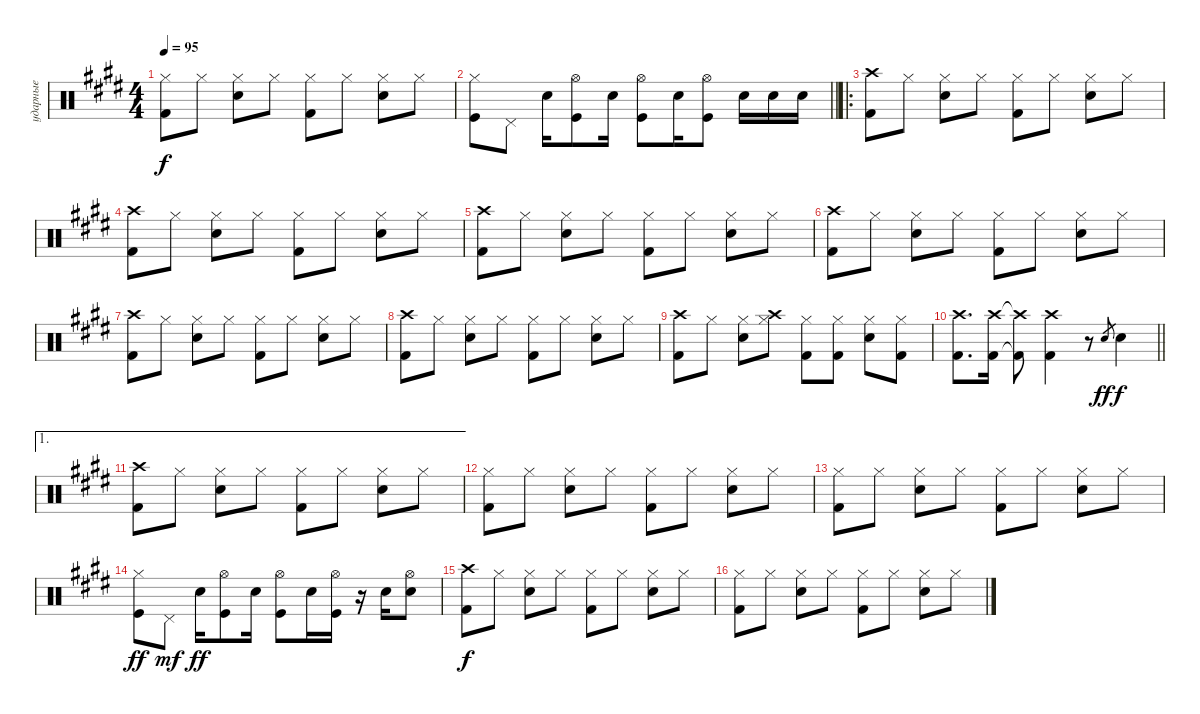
\track ("ударные" "ударные") {instrument percussion}
\staff {score}
\articulation defaults
\ts (4 4)
\tempo 95
\clef neutral
\ks e
("Hi-Hat (closed)" "Kick (hit) 2").8{dy f} "Hi-Hat (closed)".8 ("Hi-Hat (closed)" "Snare (hit) 2").8 "Hi-Hat (closed)".8 ("Hi-Hat (closed)" "Kick (hit) 2").8 "Hi-Hat (closed)".8 ("Hi-Hat (closed)" "Snare (hit) 2").8 "Hi-Hat (closed)".8 |
\barLineRight lightlight
("Hi-Hat (closed)" "Kick (hit)").8 "Pedal Hi-Hat (hit)".8 "Snare (hit) 2".16 ("Hi-Hat (open)" "Kick (hit)").8 "Snare (hit) 2".16 ("Hi-Hat (open)" "Kick (hit)").8 "Snare (hit) 2".16 ("Hi-Hat (open)" "Kick (hit)").8 "Snare (hit) 2".16 "Snare (hit) 2".16 "Snare (hit) 2".16 |
\ro
\section ("" "")
("Crash high (hit)" "Kick (hit) 2").8 "Hi-Hat (closed)".8 ("Hi-Hat (closed)" "Snare (hit) 2").8 "Hi-Hat (closed)".8 ("Hi-Hat (closed)" "Kick (hit) 2").8 "Hi-Hat (closed)".8 ("Hi-Hat (closed)" "Snare (hit) 2").8 "Hi-Hat (closed)".8 |
("Crash high (hit)" "Kick (hit) 2").8 "Hi-Hat (closed)".8 ("Hi-Hat (closed)" "Snare (hit) 2").8 "Hi-Hat (closed)".8 ("Hi-Hat (closed)" "Kick (hit) 2").8 "Hi-Hat (closed)".8 ("Hi-Hat (closed)" "Snare (hit) 2").8 "Hi-Hat (closed)".8 |
("Crash high (hit)" "Kick (hit) 2").8 "Hi-Hat (closed)".8 ("Hi-Hat (closed)" "Snare (hit) 2").8 "Hi-Hat (closed)".8 ("Hi-Hat (closed)" "Kick (hit) 2").8 "Hi-Hat (closed)".8 ("Hi-Hat (closed)" "Snare (hit) 2").8 "Hi-Hat (closed)".8 |
("Crash high (hit)" "Kick (hit) 2").8 "Hi-Hat (closed)".8 ("Hi-Hat (closed)" "Snare (hit) 2").8 "Hi-Hat (closed)".8 ("Hi-Hat (closed)" "Kick (hit) 2").8 "Hi-Hat (closed)".8 ("Hi-Hat (closed)" "Snare (hit) 2").8 "Hi-Hat (closed)".8 |
("Crash high (hit)" "Kick (hit) 2").8 "Hi-Hat (closed)".8 ("Hi-Hat (closed)" "Snare (hit) 2").8 "Hi-Hat (closed)".8 ("Hi-Hat (closed)" "Kick (hit) 2").8 "Hi-Hat (closed)".8 ("Hi-Hat (closed)" "Snare (hit) 2").8 "Hi-Hat (closed)".8 |
("Crash high (hit)" "Kick (hit) 2").8 "Hi-Hat (closed)".8 ("Hi-Hat (closed)" "Snare (hit) 2").8 "Hi-Hat (closed)".8 ("Hi-Hat (closed)" "Kick (hit) 2").8 "Hi-Hat (closed)".8 ("Hi-Hat (closed)" "Snare (hit) 2").8 "Hi-Hat (closed)".8 |
("Crash high (hit)" "Kick (hit) 2").8 "Hi-Hat (closed)".8 ("Hi-Hat (closed)" "Snare (hit) 2").8 ("Crash high (hit)" "Hi-Hat (closed)").8 ("Hi-Hat (closed)" "Kick (hit) 2").8 ("Hi-Hat (closed)" "Kick (hit) 2").8 ("Hi-Hat (closed)" "Snare (hit) 2").8 ("Hi-Hat (closed)" "Kick (hit) 2").8 |
\barLineRight lightlight
("Crash high (hit)" "Kick (hit) 2").8{d} ("Crash high (hit)" "Kick (hit) 2").16 ("Crash high (hit)"{t} "Kick (hit) 2"{t}).8 ("Crash high (hit)" "Kick (hit) 2").4 r.8 "Snare (hit) 2".8{gr dy ff} "Snare (hit) 2".4{dy f} |
\ae 1
\section ("" "")
("Crash high (hit)" "Kick (hit) 2").8 "Hi-Hat (closed)".8 ("Hi-Hat (closed)" "Snare (hit) 2").8 "Hi-Hat (closed)".8 ("Hi-Hat (closed)" "Kick (hit) 2").8 "Hi-Hat (closed)".8 ("Hi-Hat (closed)" "Snare (hit) 2").8 "Hi-Hat (closed)".8 |
("Hi-Hat (closed)" "Kick (hit) 2").8 "Hi-Hat (closed)".8 ("Hi-Hat (closed)" "Snare (hit) 2").8 "Hi-Hat (closed)".8 ("Hi-Hat (closed)" "Kick (hit) 2").8 "Hi-Hat (closed)".8 ("Hi-Hat (closed)" "Snare (hit) 2").8 "Hi-Hat (closed)".8 |
("Hi-Hat (closed)" "Kick (hit) 2").8 "Hi-Hat (closed)".8 ("Hi-Hat (closed)" "Snare (hit) 2").8 "Hi-Hat (closed)".8 ("Hi-Hat (closed)" "Kick (hit) 2").8 "Hi-Hat (closed)".8 ("Hi-Hat (closed)" "Snare (hit) 2").8 "Hi-Hat (closed)".8 |
("Hi-Hat (closed)" "Kick (hit)").8{dy ff} "Pedal Hi-Hat (hit)".8{dy mf} "Snare (hit) 2".16{dy ff} ("Hi-Hat (open)" "Kick (hit)").8 "Snare (hit) 2".16 ("Hi-Hat (open)" "Kick (hit)").8 "Snare (hit) 2".16 ("Hi-Hat (open)" "Kick (hit)").16 r.16 "Snare (hit) 2".16 ("Snare (hit) 2" "Hi-Hat (open)").8 |
("Crash high (hit)" "Kick (hit) 2").8{dy f} "Hi-Hat (closed)".8 ("Hi-Hat (closed)" "Snare (hit) 2").8 "Hi-Hat (closed)".8 ("Hi-Hat (closed)" "Kick (hit) 2").8 "Hi-Hat (closed)".8 ("Hi-Hat (closed)" "Snare (hit) 2").8 "Hi-Hat (closed)".8 |
("Hi-Hat (closed)" "Kick (hit) 2").8 "Hi-Hat (closed)".8 ("Hi-Hat (closed)" "Snare (hit) 2").8 "Hi-Hat (closed)".8 ("Hi-Hat (closed)" "Kick (hit) 2").8 "Hi-Hat (closed)".8 ("Hi-Hat (closed)" "Snare (hit) 2").8 "Hi-Hat (closed)".8
